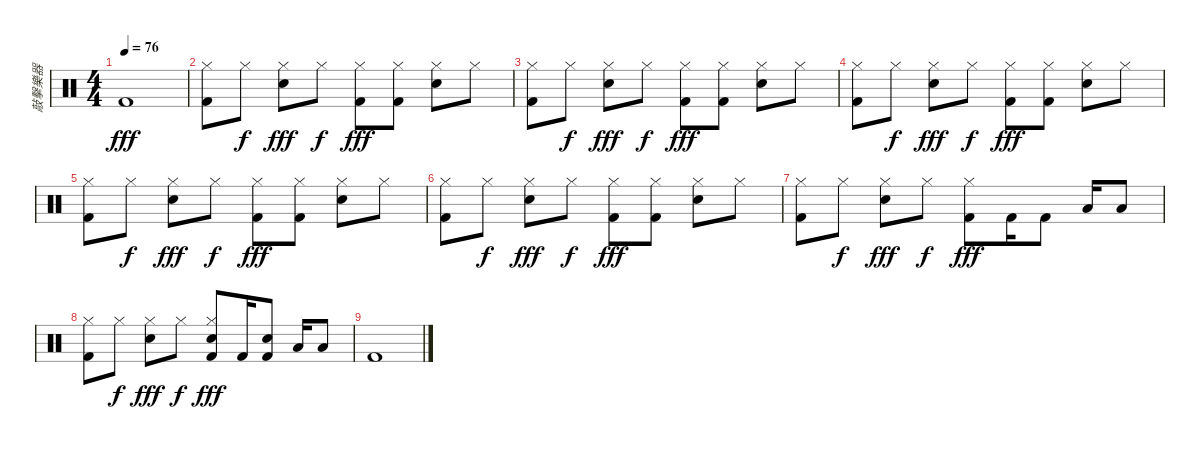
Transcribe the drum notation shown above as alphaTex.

\track ("敲擊樂器" "敲擊樂器") {instrument percussion}
\staff {score}
\articulation defaults
\ts (4 4)
\tempo 76
\clef neutral
\ks c "Kick (hit) 2".1{dy fff}
|
("Hi-Hat (closed)" "Kick (hit) 2").8 "Hi-Hat (closed)".8{dy f} ("Hi-Hat (closed)" "Snare (hit) 2").8{dy fff} "Hi-Hat (closed)".8{dy f} ("Hi-Hat (closed)" "Kick (hit) 2").8{dy fff} ("Hi-Hat (closed)" "Kick (hit) 2").8 ("Hi-Hat (closed)" "Snare (hit) 2").8 "Hi-Hat (closed)".8 |
("Hi-Hat (closed)" "Kick (hit) 2").8 "Hi-Hat (closed)".8{dy f} ("Hi-Hat (closed)" "Snare (hit) 2").8{dy fff} "Hi-Hat (closed)".8{dy f} ("Hi-Hat (closed)" "Kick (hit) 2").8{dy fff} ("Hi-Hat (closed)" "Kick (hit) 2").8 ("Hi-Hat (closed)" "Snare (hit) 2").8 "Hi-Hat (closed)".8 |
("Hi-Hat (closed)" "Kick (hit) 2").8 "Hi-Hat (closed)".8{dy f} ("Hi-Hat (closed)" "Snare (hit) 2").8{dy fff} "Hi-Hat (closed)".8{dy f} ("Hi-Hat (closed)" "Kick (hit) 2").8{dy fff} ("Hi-Hat (closed)" "Kick (hit) 2").8 ("Hi-Hat (closed)" "Snare (hit) 2").8 "Hi-Hat (closed)".8 |
("Hi-Hat (closed)" "Kick (hit) 2").8 "Hi-Hat (closed)".8{dy f} ("Hi-Hat (closed)" "Snare (hit) 2").8{dy fff} "Hi-Hat (closed)".8{dy f} ("Hi-Hat (closed)" "Kick (hit) 2").8{dy fff} ("Hi-Hat (closed)" "Kick (hit) 2").8 ("Hi-Hat (closed)" "Snare (hit) 2").8 "Hi-Hat (closed)".8 |
("Hi-Hat (closed)" "Kick (hit) 2").8 "Hi-Hat (closed)".8{dy f} ("Hi-Hat (closed)" "Snare (hit) 2").8{dy fff} "Hi-Hat (closed)".8{dy f} ("Hi-Hat (closed)" "Kick (hit) 2").8{dy fff} ("Hi-Hat (closed)" "Kick (hit) 2").8 ("Hi-Hat (closed)" "Snare (hit) 2").8 "Hi-Hat (closed)".8 |
("Hi-Hat (closed)" "Kick (hit) 2").8 "Hi-Hat (closed)".8{dy f} ("Hi-Hat (closed)" "Snare (hit) 2").8{dy fff} "Hi-Hat (closed)".8{dy f} ("Hi-Hat (closed)" "Kick (hit) 2").8{dy fff} "Kick (hit) 2".16 "Kick (hit) 2".8 "Low Floor Tom (hit)".16 "Low Floor Tom (hit)".8 |
("Hi-Hat (closed)" "Kick (hit) 2").8 "Hi-Hat (closed)".8{dy f} ("Hi-Hat (closed)" "Snare (hit) 2").8{dy fff} "Hi-Hat (closed)".8{dy f} ("Hi-Hat (closed)" "Snare (hit) 2" "Kick (hit) 2").8{dy fff} "Kick (hit) 2".16 ("Snare (hit) 2" "Kick (hit) 2").8 "Low Floor Tom (hit)".16 "Low Floor Tom (hit)".8 |
"Kick (hit) 2".1
